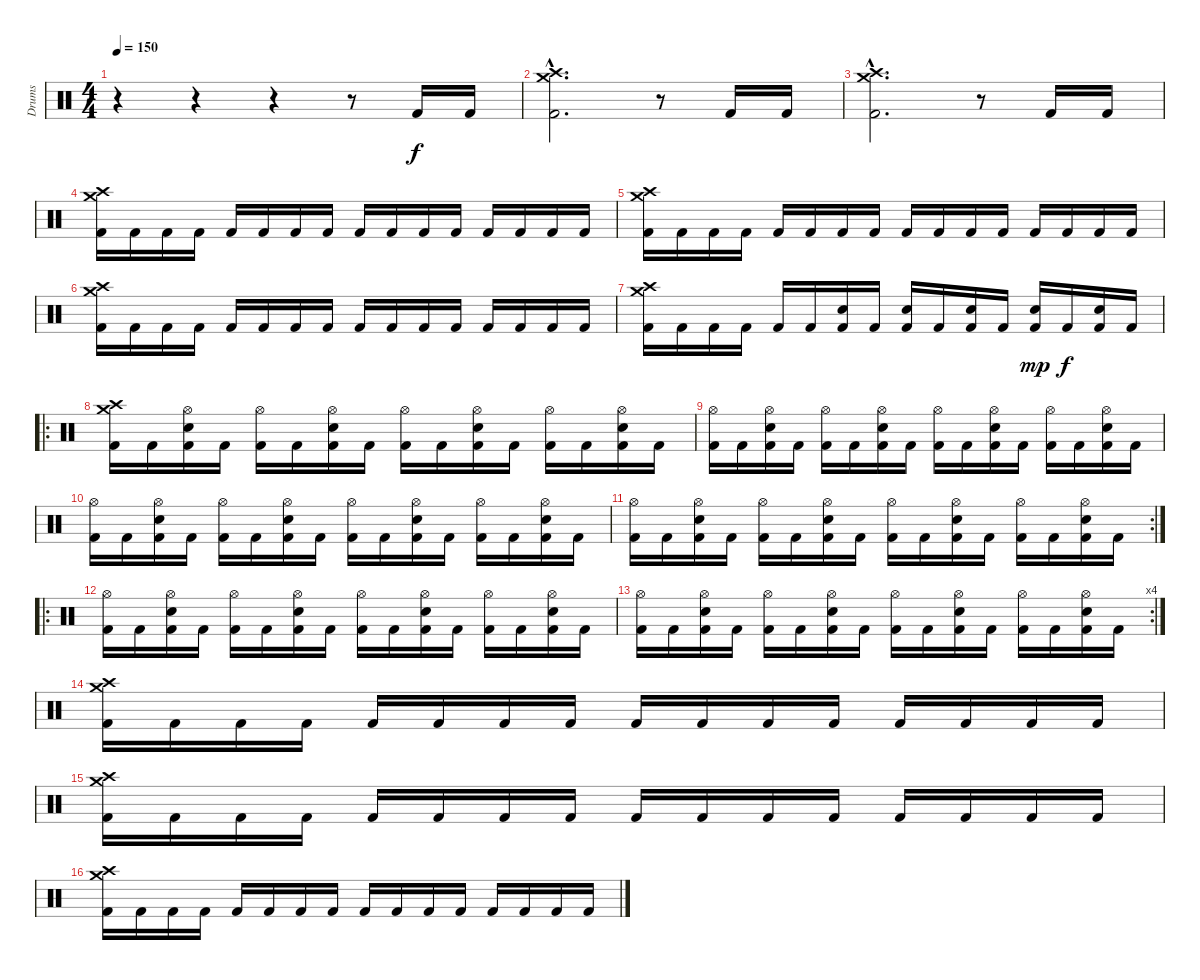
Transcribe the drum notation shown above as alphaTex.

\track ("Drums" "Drums") {instrument percussion}
\staff {score}
\articulation defaults
\ts (4 4)
\tempo 150
\clef neutral
\ks c
r.4{dy f} r.4 r.4 r.8 "Kick (hit) 2".16 "Kick (hit) 2".16 |
("Crash medium (hit)"{hac} "Crash high (hit)"{hac} "Kick (hit) 2"{hac}).2{d} r.8 "Kick (hit) 2".16 "Kick (hit) 2".16 |
("Crash medium (hit)"{hac} "Crash high (hit)"{hac} "Kick (hit) 2"{hac}).2{d} r.8 "Kick (hit) 2".16 "Kick (hit) 2".16 |
("Crash medium (hit)" "Crash high (hit)" "Kick (hit) 2").16 "Kick (hit) 2".16 "Kick (hit) 2".16 "Kick (hit) 2".16 "Kick (hit) 2".16 "Kick (hit) 2".16 "Kick (hit) 2".16 "Kick (hit) 2".16 "Kick (hit) 2".16 "Kick (hit) 2".16 "Kick (hit) 2".16 "Kick (hit) 2".16 "Kick (hit) 2".16 "Kick (hit) 2".16 "Kick (hit) 2".16 "Kick (hit) 2".16 |
("Crash medium (hit)" "Crash high (hit)" "Kick (hit) 2").16 "Kick (hit) 2".16 "Kick (hit) 2".16 "Kick (hit) 2".16 "Kick (hit) 2".16 "Kick (hit) 2".16 "Kick (hit) 2".16 "Kick (hit) 2".16 "Kick (hit) 2".16 "Kick (hit) 2".16 "Kick (hit) 2".16 "Kick (hit) 2".16 "Kick (hit) 2".16 "Kick (hit) 2".16 "Kick (hit) 2".16 "Kick (hit) 2".16 |
("Crash medium (hit)" "Crash high (hit)" "Kick (hit) 2").16 "Kick (hit) 2".16 "Kick (hit) 2".16 "Kick (hit) 2".16 "Kick (hit) 2".16 "Kick (hit) 2".16 "Kick (hit) 2".16 "Kick (hit) 2".16 "Kick (hit) 2".16 "Kick (hit) 2".16 "Kick (hit) 2".16 "Kick (hit) 2".16 "Kick (hit) 2".16 "Kick (hit) 2".16 "Kick (hit) 2".16 "Kick (hit) 2".16 |
("Crash medium (hit)" "Crash high (hit)" "Kick (hit) 2").16 "Kick (hit) 2".16 "Kick (hit) 2".16 "Kick (hit) 2".16 "Kick (hit) 2".16 "Kick (hit) 2".16 ("Electric Snare (hit)" "Kick (hit) 2").16 "Kick (hit) 2".16 ("Electric Snare (hit)" "Kick (hit) 2").16 "Kick (hit) 2".16 ("Electric Snare (hit)" "Kick (hit) 2").16 "Kick (hit) 2".16 ("Electric Snare (hit)" "Kick (hit) 2").16{dy mp} "Kick (hit) 2".16{dy f} ("Electric Snare (hit)" "Kick (hit) 2").16 "Kick (hit) 2".16 |
\ro
("Crash medium (hit)" "Crash high (hit)" "Kick (hit) 2").16 "Kick (hit) 2".16 ("Hi-Hat (open)" "Electric Snare (hit)" "Kick (hit) 2").16 "Kick (hit) 2".16 ("Hi-Hat (open)" "Kick (hit) 2").16 "Kick (hit) 2".16 ("Hi-Hat (open)" "Electric Snare (hit)" "Kick (hit) 2").16 "Kick (hit) 2".16 ("Hi-Hat (open)" "Kick (hit) 2").16 "Kick (hit) 2".16 ("Hi-Hat (open)" "Electric Snare (hit)" "Kick (hit) 2").16 "Kick (hit) 2".16 ("Hi-Hat (open)" "Kick (hit) 2").16 "Kick (hit) 2".16 ("Hi-Hat (open)" "Electric Snare (hit)" "Kick (hit) 2").16 "Kick (hit) 2".16 |
("Hi-Hat (open)" "Kick (hit) 2").16 "Kick (hit) 2".16 ("Hi-Hat (open)" "Electric Snare (hit)" "Kick (hit) 2").16 "Kick (hit) 2".16 ("Hi-Hat (open)" "Kick (hit) 2").16 "Kick (hit) 2".16 ("Hi-Hat (open)" "Electric Snare (hit)" "Kick (hit) 2").16 "Kick (hit) 2".16 ("Hi-Hat (open)" "Kick (hit) 2").16 "Kick (hit) 2".16 ("Hi-Hat (open)" "Electric Snare (hit)" "Kick (hit) 2").16 "Kick (hit) 2".16 ("Hi-Hat (open)" "Kick (hit) 2").16 "Kick (hit) 2".16 ("Hi-Hat (open)" "Electric Snare (hit)" "Kick (hit) 2").16 "Kick (hit) 2".16 |
("Hi-Hat (open)" "Kick (hit) 2").16 "Kick (hit) 2".16 ("Hi-Hat (open)" "Electric Snare (hit)" "Kick (hit) 2").16 "Kick (hit) 2".16 ("Hi-Hat (open)" "Kick (hit) 2").16 "Kick (hit) 2".16 ("Hi-Hat (open)" "Electric Snare (hit)" "Kick (hit) 2").16 "Kick (hit) 2".16 ("Hi-Hat (open)" "Kick (hit) 2").16 "Kick (hit) 2".16 ("Hi-Hat (open)" "Electric Snare (hit)" "Kick (hit) 2").16 "Kick (hit) 2".16 ("Hi-Hat (open)" "Kick (hit) 2").16 "Kick (hit) 2".16 ("Hi-Hat (open)" "Electric Snare (hit)" "Kick (hit) 2").16 "Kick (hit) 2".16 |
\rc 2
("Hi-Hat (open)" "Kick (hit) 2").16 "Kick (hit) 2".16 ("Hi-Hat (open)" "Electric Snare (hit)" "Kick (hit) 2").16 "Kick (hit) 2".16 ("Hi-Hat (open)" "Kick (hit) 2").16 "Kick (hit) 2".16 ("Hi-Hat (open)" "Electric Snare (hit)" "Kick (hit) 2").16 "Kick (hit) 2".16 ("Hi-Hat (open)" "Kick (hit) 2").16 "Kick (hit) 2".16 ("Hi-Hat (open)" "Electric Snare (hit)" "Kick (hit) 2").16 "Kick (hit) 2".16 ("Hi-Hat (open)" "Kick (hit) 2").16 "Kick (hit) 2".16 ("Hi-Hat (open)" "Electric Snare (hit)" "Kick (hit) 2").16 "Kick (hit) 2".16 |
\ro
("Hi-Hat (open)" "Kick (hit) 2").16 "Kick (hit) 2".16 ("Hi-Hat (open)" "Electric Snare (hit)" "Kick (hit) 2").16 "Kick (hit) 2".16 ("Hi-Hat (open)" "Kick (hit) 2").16 "Kick (hit) 2".16 ("Hi-Hat (open)" "Electric Snare (hit)" "Kick (hit) 2").16 "Kick (hit) 2".16 ("Hi-Hat (open)" "Kick (hit) 2").16 "Kick (hit) 2".16 ("Hi-Hat (open)" "Electric Snare (hit)" "Kick (hit) 2").16 "Kick (hit) 2".16 ("Hi-Hat (open)" "Kick (hit) 2").16 "Kick (hit) 2".16 ("Hi-Hat (open)" "Electric Snare (hit)" "Kick (hit) 2").16 "Kick (hit) 2".16 |
\rc 4
("Hi-Hat (open)" "Kick (hit) 2").16 "Kick (hit) 2".16 ("Hi-Hat (open)" "Electric Snare (hit)" "Kick (hit) 2").16 "Kick (hit) 2".16 ("Hi-Hat (open)" "Kick (hit) 2").16 "Kick (hit) 2".16 ("Hi-Hat (open)" "Electric Snare (hit)" "Kick (hit) 2").16 "Kick (hit) 2".16 ("Hi-Hat (open)" "Kick (hit) 2").16 "Kick (hit) 2".16 ("Hi-Hat (open)" "Electric Snare (hit)" "Kick (hit) 2").16 "Kick (hit) 2".16 ("Hi-Hat (open)" "Kick (hit) 2").16 "Kick (hit) 2".16 ("Hi-Hat (open)" "Electric Snare (hit)" "Kick (hit) 2").16 "Kick (hit) 2".16 |
("Crash medium (hit)" "Crash high (hit)" "Kick (hit) 2").16 "Kick (hit) 2".16 "Kick (hit) 2".16 "Kick (hit) 2".16 "Kick (hit) 2".16 "Kick (hit) 2".16 "Kick (hit) 2".16 "Kick (hit) 2".16 "Kick (hit) 2".16 "Kick (hit) 2".16 "Kick (hit) 2".16 "Kick (hit) 2".16 "Kick (hit) 2".16 "Kick (hit) 2".16 "Kick (hit) 2".16 "Kick (hit) 2".16 |
("Crash medium (hit)" "Crash high (hit)" "Kick (hit) 2").16 "Kick (hit) 2".16 "Kick (hit) 2".16 "Kick (hit) 2".16 "Kick (hit) 2".16 "Kick (hit) 2".16 "Kick (hit) 2".16 "Kick (hit) 2".16 "Kick (hit) 2".16 "Kick (hit) 2".16 "Kick (hit) 2".16 "Kick (hit) 2".16 "Kick (hit) 2".16 "Kick (hit) 2".16 "Kick (hit) 2".16 "Kick (hit) 2".16 |
("Crash medium (hit)" "Crash high (hit)" "Kick (hit) 2").16 "Kick (hit) 2".16 "Kick (hit) 2".16 "Kick (hit) 2".16 "Kick (hit) 2".16 "Kick (hit) 2".16 "Kick (hit) 2".16 "Kick (hit) 2".16 "Kick (hit) 2".16 "Kick (hit) 2".16 "Kick (hit) 2".16 "Kick (hit) 2".16 "Kick (hit) 2".16 "Kick (hit) 2".16 "Kick (hit) 2".16 "Kick (hit) 2".16
